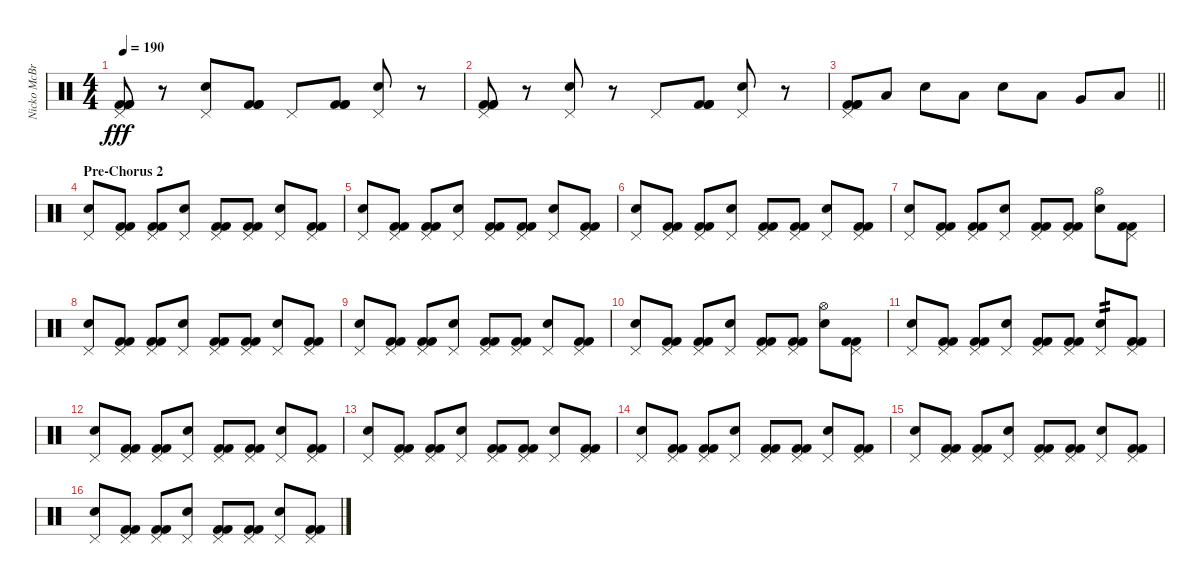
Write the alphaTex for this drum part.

\track ("Nicko McBrain" "Nicko McBr") {instrument percussion}
\staff {score}
\articulation defaults
\ts (4 4)
\tempo 190
\clef neutral
\ks c
("Pedal Hi-Hat (hit)" "Kick (hit) 2" "Kick (hit) 2" "Kick (hit) 2").8{dy fff} r.8 ("Snare (hit) 2" "Pedal Hi-Hat (hit)").8 ("Kick (hit) 2" "Kick (hit) 2" "Kick (hit) 2").8 "Pedal Hi-Hat (hit)".8 ("Kick (hit) 2" "Kick (hit) 2" "Kick (hit) 2").8 ("Snare (hit) 2" "Pedal Hi-Hat (hit)").8 r.8 |
("Pedal Hi-Hat (hit)" "Kick (hit) 2" "Kick (hit) 2" "Kick (hit) 2").8 r.8 ("Snare (hit) 2" "Pedal Hi-Hat (hit)").8 r.8 "Pedal Hi-Hat (hit)".8 ("Kick (hit) 2" "Kick (hit) 2" "Kick (hit) 2").8 ("Snare (hit) 2" "Pedal Hi-Hat (hit)").8 r.8 |
\barLineRight lightlight
("Pedal Hi-Hat (hit)" "Kick (hit) 2" "Kick (hit) 2" "Kick (hit) 2").8 "Low Tom (hit)".8 "Snare (hit) 2".8 "Low Tom (hit)".8 "Snare (hit) 2".8 "Low Tom (hit)".8 "Very Low Tom (hit)".8 "Low Floor Tom (hit)".8 |
\section ("" "Pre-Chorus 2")
("Snare (hit) 2" "Pedal Hi-Hat (hit)").8 ("Pedal Hi-Hat (hit)" "Kick (hit) 2" "Kick (hit) 2").8 ("Pedal Hi-Hat (hit)" "Kick (hit) 2" "Kick (hit) 2").8 ("Snare (hit) 2" "Pedal Hi-Hat (hit)").8 ("Pedal Hi-Hat (hit)" "Kick (hit) 2" "Kick (hit) 2").8 ("Pedal Hi-Hat (hit)" "Kick (hit) 2" "Kick (hit) 2").8 ("Snare (hit) 2" "Pedal Hi-Hat (hit)").8 ("Pedal Hi-Hat (hit)" "Kick (hit) 2" "Kick (hit) 2").8 |
("Snare (hit) 2" "Pedal Hi-Hat (hit)").8 ("Pedal Hi-Hat (hit)" "Kick (hit) 2" "Kick (hit) 2").8 ("Pedal Hi-Hat (hit)" "Kick (hit) 2" "Kick (hit) 2").8 ("Snare (hit) 2" "Pedal Hi-Hat (hit)").8 ("Pedal Hi-Hat (hit)" "Kick (hit) 2" "Kick (hit) 2").8 ("Pedal Hi-Hat (hit)" "Kick (hit) 2" "Kick (hit) 2").8 ("Snare (hit) 2" "Pedal Hi-Hat (hit)").8 ("Pedal Hi-Hat (hit)" "Kick (hit) 2" "Kick (hit) 2").8 |
("Snare (hit) 2" "Pedal Hi-Hat (hit)").8 ("Pedal Hi-Hat (hit)" "Kick (hit) 2" "Kick (hit) 2").8 ("Pedal Hi-Hat (hit)" "Kick (hit) 2" "Kick (hit) 2").8 ("Snare (hit) 2" "Pedal Hi-Hat (hit)").8 ("Pedal Hi-Hat (hit)" "Kick (hit) 2" "Kick (hit) 2").8 ("Pedal Hi-Hat (hit)" "Kick (hit) 2" "Kick (hit) 2").8 ("Snare (hit) 2" "Pedal Hi-Hat (hit)").8 ("Pedal Hi-Hat (hit)" "Kick (hit) 2" "Kick (hit) 2").8 |
("Snare (hit) 2" "Pedal Hi-Hat (hit)").8 ("Pedal Hi-Hat (hit)" "Kick (hit) 2" "Kick (hit) 2").8 ("Pedal Hi-Hat (hit)" "Kick (hit) 2" "Kick (hit) 2").8 ("Snare (hit) 2" "Pedal Hi-Hat (hit)").8 ("Pedal Hi-Hat (hit)" "Kick (hit) 2" "Kick (hit) 2").8 ("Pedal Hi-Hat (hit)" "Kick (hit) 2" "Kick (hit) 2").8 ("Snare (hit) 2" "Hi-Hat (open)").8 ("Pedal Hi-Hat (hit)" "Kick (hit) 2" "Kick (hit) 2").8 |
("Snare (hit) 2" "Pedal Hi-Hat (hit)").8 ("Pedal Hi-Hat (hit)" "Kick (hit) 2" "Kick (hit) 2").8 ("Pedal Hi-Hat (hit)" "Kick (hit) 2" "Kick (hit) 2").8 ("Snare (hit) 2" "Pedal Hi-Hat (hit)").8 ("Pedal Hi-Hat (hit)" "Kick (hit) 2" "Kick (hit) 2").8 ("Pedal Hi-Hat (hit)" "Kick (hit) 2" "Kick (hit) 2").8 ("Snare (hit) 2" "Pedal Hi-Hat (hit)").8 ("Pedal Hi-Hat (hit)" "Kick (hit) 2" "Kick (hit) 2").8 |
("Snare (hit) 2" "Pedal Hi-Hat (hit)").8 ("Pedal Hi-Hat (hit)" "Kick (hit) 2" "Kick (hit) 2").8 ("Pedal Hi-Hat (hit)" "Kick (hit) 2" "Kick (hit) 2").8 ("Snare (hit) 2" "Pedal Hi-Hat (hit)").8 ("Pedal Hi-Hat (hit)" "Kick (hit) 2" "Kick (hit) 2").8 ("Pedal Hi-Hat (hit)" "Kick (hit) 2" "Kick (hit) 2").8 ("Snare (hit) 2" "Pedal Hi-Hat (hit)").8 ("Pedal Hi-Hat (hit)" "Kick (hit) 2" "Kick (hit) 2").8 |
("Snare (hit) 2" "Pedal Hi-Hat (hit)").8 ("Pedal Hi-Hat (hit)" "Kick (hit) 2" "Kick (hit) 2").8 ("Pedal Hi-Hat (hit)" "Kick (hit) 2" "Kick (hit) 2").8 ("Snare (hit) 2" "Pedal Hi-Hat (hit)").8 ("Pedal Hi-Hat (hit)" "Kick (hit) 2" "Kick (hit) 2").8 ("Pedal Hi-Hat (hit)" "Kick (hit) 2" "Kick (hit) 2").8 ("Snare (hit) 2" "Hi-Hat (open)").8 ("Pedal Hi-Hat (hit)" "Kick (hit) 2" "Kick (hit) 2").8 |
("Snare (hit) 2" "Pedal Hi-Hat (hit)").8 ("Pedal Hi-Hat (hit)" "Kick (hit) 2" "Kick (hit) 2").8 ("Pedal Hi-Hat (hit)" "Kick (hit) 2" "Kick (hit) 2").8 ("Snare (hit) 2" "Pedal Hi-Hat (hit)").8 ("Pedal Hi-Hat (hit)" "Kick (hit) 2" "Kick (hit) 2").8 ("Pedal Hi-Hat (hit)" "Kick (hit) 2" "Kick (hit) 2").8 ("Snare (hit) 2" "Pedal Hi-Hat (hit)").8{tp 2} ("Pedal Hi-Hat (hit)" "Kick (hit) 2" "Kick (hit) 2").8 |
("Snare (hit) 2" "Pedal Hi-Hat (hit)").8 ("Pedal Hi-Hat (hit)" "Kick (hit) 2" "Kick (hit) 2").8 ("Pedal Hi-Hat (hit)" "Kick (hit) 2" "Kick (hit) 2").8 ("Snare (hit) 2" "Pedal Hi-Hat (hit)").8 ("Pedal Hi-Hat (hit)" "Kick (hit) 2" "Kick (hit) 2").8 ("Pedal Hi-Hat (hit)" "Kick (hit) 2" "Kick (hit) 2").8 ("Snare (hit) 2" "Pedal Hi-Hat (hit)").8 ("Pedal Hi-Hat (hit)" "Kick (hit) 2" "Kick (hit) 2").8 |
("Snare (hit) 2" "Pedal Hi-Hat (hit)").8 ("Pedal Hi-Hat (hit)" "Kick (hit) 2" "Kick (hit) 2").8 ("Pedal Hi-Hat (hit)" "Kick (hit) 2" "Kick (hit) 2").8 ("Snare (hit) 2" "Pedal Hi-Hat (hit)").8 ("Pedal Hi-Hat (hit)" "Kick (hit) 2" "Kick (hit) 2").8 ("Pedal Hi-Hat (hit)" "Kick (hit) 2" "Kick (hit) 2").8 ("Snare (hit) 2" "Pedal Hi-Hat (hit)").8 ("Pedal Hi-Hat (hit)" "Kick (hit) 2" "Kick (hit) 2").8 |
("Snare (hit) 2" "Pedal Hi-Hat (hit)").8 ("Pedal Hi-Hat (hit)" "Kick (hit) 2" "Kick (hit) 2").8 ("Pedal Hi-Hat (hit)" "Kick (hit) 2" "Kick (hit) 2").8 ("Snare (hit) 2" "Pedal Hi-Hat (hit)").8 ("Pedal Hi-Hat (hit)" "Kick (hit) 2" "Kick (hit) 2").8 ("Pedal Hi-Hat (hit)" "Kick (hit) 2" "Kick (hit) 2").8 ("Snare (hit) 2" "Pedal Hi-Hat (hit)").8 ("Pedal Hi-Hat (hit)" "Kick (hit) 2" "Kick (hit) 2").8 |
("Snare (hit) 2" "Pedal Hi-Hat (hit)").8 ("Pedal Hi-Hat (hit)" "Kick (hit) 2" "Kick (hit) 2").8 ("Pedal Hi-Hat (hit)" "Kick (hit) 2" "Kick (hit) 2").8 ("Snare (hit) 2" "Pedal Hi-Hat (hit)").8 ("Pedal Hi-Hat (hit)" "Kick (hit) 2" "Kick (hit) 2").8 ("Pedal Hi-Hat (hit)" "Kick (hit) 2" "Kick (hit) 2").8 ("Snare (hit) 2" "Pedal Hi-Hat (hit)").8 ("Pedal Hi-Hat (hit)" "Kick (hit) 2" "Kick (hit) 2").8 |
("Snare (hit) 2" "Pedal Hi-Hat (hit)").8 ("Pedal Hi-Hat (hit)" "Kick (hit) 2" "Kick (hit) 2").8 ("Pedal Hi-Hat (hit)" "Kick (hit) 2" "Kick (hit) 2").8 ("Snare (hit) 2" "Pedal Hi-Hat (hit)").8 ("Pedal Hi-Hat (hit)" "Kick (hit) 2" "Kick (hit) 2").8 ("Pedal Hi-Hat (hit)" "Kick (hit) 2" "Kick (hit) 2").8 ("Snare (hit) 2" "Pedal Hi-Hat (hit)").8 ("Pedal Hi-Hat (hit)" "Kick (hit) 2" "Kick (hit) 2").8
